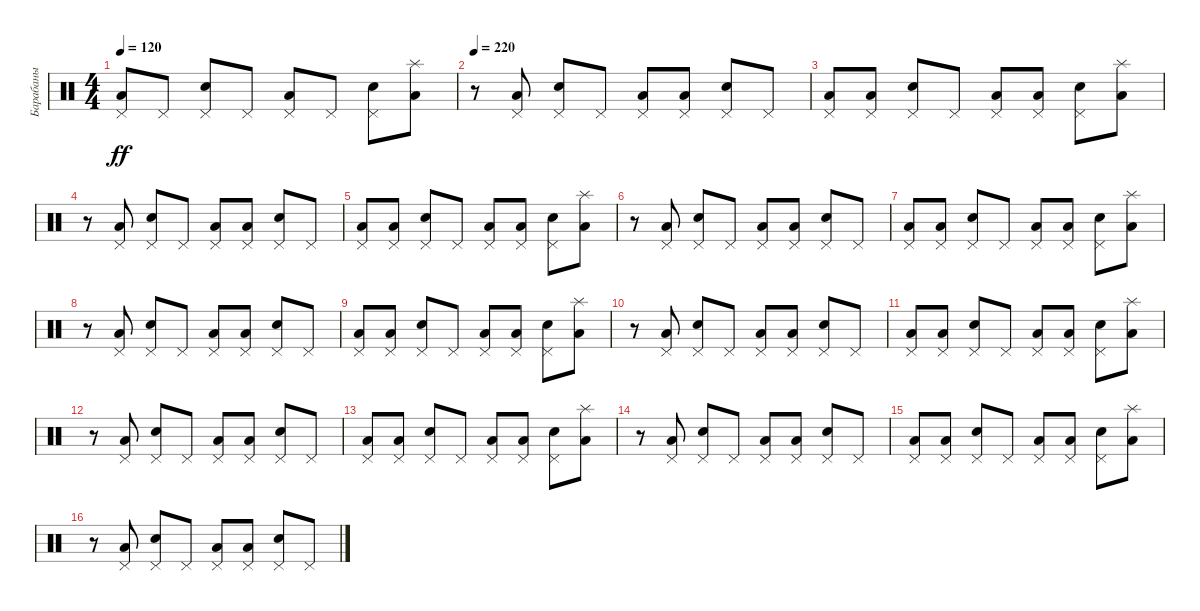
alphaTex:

\track ("Барабаны" "Барабаны") {instrument percussion}
\staff {score}
\articulation defaults
\ts (4 4)
\tempo 120
\clef neutral
\ks c
("Low Floor Tom (hit)" "Pedal Hi-Hat (hit)").8{dy ff} "Pedal Hi-Hat (hit)".8 ("Electric Snare (hit)" "Pedal Hi-Hat (hit)").8 "Pedal Hi-Hat (hit)".8 ("Low Floor Tom (hit)" "Pedal Hi-Hat (hit)").8 "Pedal Hi-Hat (hit)".8 ("Electric Snare (hit)" "Pedal Hi-Hat (hit)").8 ("Low Floor Tom (hit)" "Splash (hit)").8 |
\tempo 220
r.8 ("Low Floor Tom (hit)" "Pedal Hi-Hat (hit)").8 ("Electric Snare (hit)" "Pedal Hi-Hat (hit)").8 "Pedal Hi-Hat (hit)".8 ("Low Floor Tom (hit)" "Pedal Hi-Hat (hit)").8 ("Low Floor Tom (hit)" "Pedal Hi-Hat (hit)").8 ("Electric Snare (hit)" "Pedal Hi-Hat (hit)").8 "Pedal Hi-Hat (hit)".8 |
("Low Floor Tom (hit)" "Pedal Hi-Hat (hit)").8 ("Low Floor Tom (hit)" "Pedal Hi-Hat (hit)").8 ("Electric Snare (hit)" "Pedal Hi-Hat (hit)").8 "Pedal Hi-Hat (hit)".8 ("Low Floor Tom (hit)" "Pedal Hi-Hat (hit)").8 ("Low Floor Tom (hit)" "Pedal Hi-Hat (hit)").8 ("Electric Snare (hit)" "Pedal Hi-Hat (hit)").8 ("Low Floor Tom (hit)" "Splash (hit)").8 |
r.8 ("Low Floor Tom (hit)" "Pedal Hi-Hat (hit)").8 ("Electric Snare (hit)" "Pedal Hi-Hat (hit)").8 "Pedal Hi-Hat (hit)".8 ("Low Floor Tom (hit)" "Pedal Hi-Hat (hit)").8 ("Low Floor Tom (hit)" "Pedal Hi-Hat (hit)").8 ("Electric Snare (hit)" "Pedal Hi-Hat (hit)").8 "Pedal Hi-Hat (hit)".8 |
("Low Floor Tom (hit)" "Pedal Hi-Hat (hit)").8 ("Low Floor Tom (hit)" "Pedal Hi-Hat (hit)").8 ("Electric Snare (hit)" "Pedal Hi-Hat (hit)").8 "Pedal Hi-Hat (hit)".8 ("Low Floor Tom (hit)" "Pedal Hi-Hat (hit)").8 ("Low Floor Tom (hit)" "Pedal Hi-Hat (hit)").8 ("Electric Snare (hit)" "Pedal Hi-Hat (hit)").8 ("Low Floor Tom (hit)" "Splash (hit)").8 |
r.8 ("Low Floor Tom (hit)" "Pedal Hi-Hat (hit)").8 ("Electric Snare (hit)" "Pedal Hi-Hat (hit)").8 "Pedal Hi-Hat (hit)".8 ("Low Floor Tom (hit)" "Pedal Hi-Hat (hit)").8 ("Low Floor Tom (hit)" "Pedal Hi-Hat (hit)").8 ("Electric Snare (hit)" "Pedal Hi-Hat (hit)").8 "Pedal Hi-Hat (hit)".8 |
("Low Floor Tom (hit)" "Pedal Hi-Hat (hit)").8 ("Low Floor Tom (hit)" "Pedal Hi-Hat (hit)").8 ("Electric Snare (hit)" "Pedal Hi-Hat (hit)").8 "Pedal Hi-Hat (hit)".8 ("Low Floor Tom (hit)" "Pedal Hi-Hat (hit)").8 ("Low Floor Tom (hit)" "Pedal Hi-Hat (hit)").8 ("Electric Snare (hit)" "Pedal Hi-Hat (hit)").8 ("Low Floor Tom (hit)" "Splash (hit)").8 |
r.8 ("Low Floor Tom (hit)" "Pedal Hi-Hat (hit)").8 ("Electric Snare (hit)" "Pedal Hi-Hat (hit)").8 "Pedal Hi-Hat (hit)".8 ("Low Floor Tom (hit)" "Pedal Hi-Hat (hit)").8 ("Low Floor Tom (hit)" "Pedal Hi-Hat (hit)").8 ("Electric Snare (hit)" "Pedal Hi-Hat (hit)").8 "Pedal Hi-Hat (hit)".8 |
("Low Floor Tom (hit)" "Pedal Hi-Hat (hit)").8 ("Low Floor Tom (hit)" "Pedal Hi-Hat (hit)").8 ("Electric Snare (hit)" "Pedal Hi-Hat (hit)").8 "Pedal Hi-Hat (hit)".8 ("Low Floor Tom (hit)" "Pedal Hi-Hat (hit)").8 ("Low Floor Tom (hit)" "Pedal Hi-Hat (hit)").8 ("Electric Snare (hit)" "Pedal Hi-Hat (hit)").8 ("Low Floor Tom (hit)" "Splash (hit)").8 |
r.8 ("Low Floor Tom (hit)" "Pedal Hi-Hat (hit)").8 ("Electric Snare (hit)" "Pedal Hi-Hat (hit)").8 "Pedal Hi-Hat (hit)".8 ("Low Floor Tom (hit)" "Pedal Hi-Hat (hit)").8 ("Low Floor Tom (hit)" "Pedal Hi-Hat (hit)").8 ("Electric Snare (hit)" "Pedal Hi-Hat (hit)").8 "Pedal Hi-Hat (hit)".8 |
("Low Floor Tom (hit)" "Pedal Hi-Hat (hit)").8 ("Low Floor Tom (hit)" "Pedal Hi-Hat (hit)").8 ("Electric Snare (hit)" "Pedal Hi-Hat (hit)").8 "Pedal Hi-Hat (hit)".8 ("Low Floor Tom (hit)" "Pedal Hi-Hat (hit)").8 ("Low Floor Tom (hit)" "Pedal Hi-Hat (hit)").8 ("Electric Snare (hit)" "Pedal Hi-Hat (hit)").8 ("Low Floor Tom (hit)" "Splash (hit)").8 |
r.8 ("Low Floor Tom (hit)" "Pedal Hi-Hat (hit)").8 ("Electric Snare (hit)" "Pedal Hi-Hat (hit)").8 "Pedal Hi-Hat (hit)".8 ("Low Floor Tom (hit)" "Pedal Hi-Hat (hit)").8 ("Low Floor Tom (hit)" "Pedal Hi-Hat (hit)").8 ("Electric Snare (hit)" "Pedal Hi-Hat (hit)").8 "Pedal Hi-Hat (hit)".8 |
("Low Floor Tom (hit)" "Pedal Hi-Hat (hit)").8 ("Low Floor Tom (hit)" "Pedal Hi-Hat (hit)").8 ("Electric Snare (hit)" "Pedal Hi-Hat (hit)").8 "Pedal Hi-Hat (hit)".8 ("Low Floor Tom (hit)" "Pedal Hi-Hat (hit)").8 ("Low Floor Tom (hit)" "Pedal Hi-Hat (hit)").8 ("Electric Snare (hit)" "Pedal Hi-Hat (hit)").8 ("Low Floor Tom (hit)" "Splash (hit)").8 |
r.8 ("Low Floor Tom (hit)" "Pedal Hi-Hat (hit)").8 ("Electric Snare (hit)" "Pedal Hi-Hat (hit)").8 "Pedal Hi-Hat (hit)".8 ("Low Floor Tom (hit)" "Pedal Hi-Hat (hit)").8 ("Low Floor Tom (hit)" "Pedal Hi-Hat (hit)").8 ("Electric Snare (hit)" "Pedal Hi-Hat (hit)").8 "Pedal Hi-Hat (hit)".8 |
("Low Floor Tom (hit)" "Pedal Hi-Hat (hit)").8 ("Low Floor Tom (hit)" "Pedal Hi-Hat (hit)").8 ("Electric Snare (hit)" "Pedal Hi-Hat (hit)").8 "Pedal Hi-Hat (hit)".8 ("Low Floor Tom (hit)" "Pedal Hi-Hat (hit)").8 ("Low Floor Tom (hit)" "Pedal Hi-Hat (hit)").8 ("Electric Snare (hit)" "Pedal Hi-Hat (hit)").8 ("Low Floor Tom (hit)" "Splash (hit)").8 |
r.8 ("Low Floor Tom (hit)" "Pedal Hi-Hat (hit)").8 ("Electric Snare (hit)" "Pedal Hi-Hat (hit)").8 "Pedal Hi-Hat (hit)".8 ("Low Floor Tom (hit)" "Pedal Hi-Hat (hit)").8 ("Low Floor Tom (hit)" "Pedal Hi-Hat (hit)").8 ("Electric Snare (hit)" "Pedal Hi-Hat (hit)").8 "Pedal Hi-Hat (hit)".8
